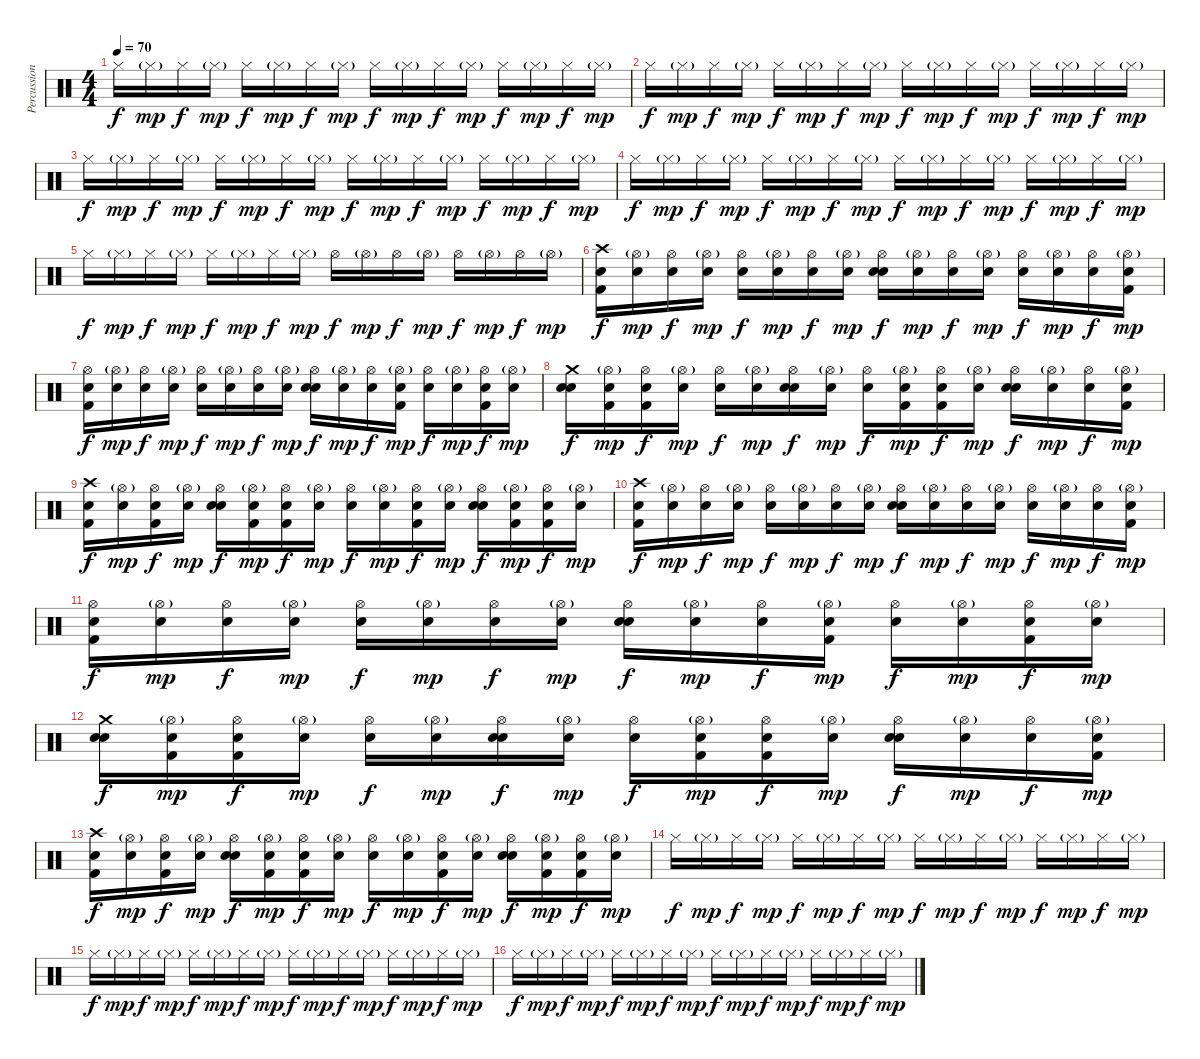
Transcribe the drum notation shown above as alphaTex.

\track ("Percussion" "Percussion") {instrument percussion}
\staff {score}
\articulation defaults
\ts (4 4)
\tempo 70
\clef neutral
\ks c "Hi-Hat (closed)".16{dy f} "Hi-Hat (closed)"{g}.16{dy mp} "Hi-Hat (closed)".16{dy f} "Hi-Hat (closed)"{g}.16{dy mp} "Hi-Hat (closed)".16{dy f} "Hi-Hat (closed)"{g}.16{dy mp} "Hi-Hat (closed)".16{dy f} "Hi-Hat (closed)"{g}.16{dy mp} "Hi-Hat (closed)".16{dy f} "Hi-Hat (closed)"{g}.16{dy mp} "Hi-Hat (closed)".16{dy f} "Hi-Hat (closed)"{g}.16{dy mp} "Hi-Hat (closed)".16{dy f} "Hi-Hat (closed)"{g}.16{dy mp} "Hi-Hat (closed)".16{dy f} "Hi-Hat (closed)"{g}.16{dy mp}
|
"Hi-Hat (closed)".16{dy f} "Hi-Hat (closed)"{g}.16{dy mp} "Hi-Hat (closed)".16{dy f} "Hi-Hat (closed)"{g}.16{dy mp} "Hi-Hat (closed)".16{dy f} "Hi-Hat (closed)"{g}.16{dy mp} "Hi-Hat (closed)".16{dy f} "Hi-Hat (closed)"{g}.16{dy mp} "Hi-Hat (closed)".16{dy f} "Hi-Hat (closed)"{g}.16{dy mp} "Hi-Hat (closed)".16{dy f} "Hi-Hat (closed)"{g}.16{dy mp} "Hi-Hat (closed)".16{dy f} "Hi-Hat (closed)"{g}.16{dy mp} "Hi-Hat (closed)".16{dy f} "Hi-Hat (closed)"{g}.16{dy mp} |
"Hi-Hat (closed)".16{dy f} "Hi-Hat (closed)"{g}.16{dy mp} "Hi-Hat (closed)".16{dy f} "Hi-Hat (closed)"{g}.16{dy mp} "Hi-Hat (closed)".16{dy f} "Hi-Hat (closed)"{g}.16{dy mp} "Hi-Hat (closed)".16{dy f} "Hi-Hat (closed)"{g}.16{dy mp} "Hi-Hat (closed)".16{dy f} "Hi-Hat (closed)"{g}.16{dy mp} "Hi-Hat (closed)".16{dy f} "Hi-Hat (closed)"{g}.16{dy mp} "Hi-Hat (closed)".16{dy f} "Hi-Hat (closed)"{g}.16{dy mp} "Hi-Hat (closed)".16{dy f} "Hi-Hat (closed)"{g}.16{dy mp} |
"Hi-Hat (closed)".16{dy f} "Hi-Hat (closed)"{g}.16{dy mp} "Hi-Hat (closed)".16{dy f} "Hi-Hat (closed)"{g}.16{dy mp} "Hi-Hat (closed)".16{dy f} "Hi-Hat (closed)"{g}.16{dy mp} "Hi-Hat (closed)".16{dy f} "Hi-Hat (closed)"{g}.16{dy mp} "Hi-Hat (closed)".16{dy f} "Hi-Hat (closed)"{g}.16{dy mp} "Hi-Hat (closed)".16{dy f} "Hi-Hat (closed)"{g}.16{dy mp} "Hi-Hat (closed)".16{dy f} "Hi-Hat (closed)"{g}.16{dy mp} "Hi-Hat (closed)".16{dy f} "Hi-Hat (closed)"{g}.16{dy mp} |
"Hi-Hat (closed)".16{dy f} "Hi-Hat (closed)"{g}.16{dy mp} "Hi-Hat (closed)".16{dy f} "Hi-Hat (closed)"{g}.16{dy mp} "Hi-Hat (closed)".16{dy f} "Hi-Hat (closed)"{g}.16{dy mp} "Hi-Hat (closed)".16{dy f} "Hi-Hat (closed)"{g}.16{dy mp} "Hi-Hat (open)".16{dy f} "Hi-Hat (open)"{g}.16{dy mp} "Hi-Hat (open)".16{dy f} "Hi-Hat (open)"{g}.16{dy mp} "Hi-Hat (open)".16{dy f} "Hi-Hat (open)"{g}.16{dy mp} "Hi-Hat (open)".16{dy f} "Hi-Hat (open)"{g}.16{dy mp} |
("Snare (hit)" "Crash high (hit)" "Kick (hit) 2").16{dy f} ("Snare (hit)" "Hi-Hat (open)"{g}).16{dy mp} ("Snare (hit)" "Hi-Hat (open)").16{dy f} ("Snare (hit)" "Hi-Hat (open)"{g}).16{dy mp} ("Snare (hit)" "Hi-Hat (open)").16{dy f} ("Snare (hit)" "Hi-Hat (open)"{g}).16{dy mp} ("Snare (hit)" "Hi-Hat (open)").16{dy f} ("Snare (hit)" "Hi-Hat (open)"{g}).16{dy mp} ("Snare (hit)" "Hi-Hat (open)" "Snare (hit) 2").16{dy f} ("Snare (hit)" "Hi-Hat (open)"{g}).16{dy mp} ("Snare (hit)" "Hi-Hat (open)").16{dy f} ("Snare (hit)" "Hi-Hat (open)"{g}).16{dy mp} ("Snare (hit)" "Hi-Hat (open)").16{dy f} ("Snare (hit)" "Hi-Hat (open)"{g}).16{dy mp} ("Snare (hit)" "Hi-Hat (open)").16{dy f} ("Snare (hit)" "Hi-Hat (open)"{g} "Kick (hit) 2").16{dy mp} |
("Snare (hit)" "Hi-Hat (open)" "Kick (hit) 2").16{dy f} ("Snare (hit)" "Hi-Hat (open)"{g}).16{dy mp} ("Snare (hit)" "Hi-Hat (open)").16{dy f} ("Snare (hit)" "Hi-Hat (open)"{g}).16{dy mp} ("Snare (hit)" "Hi-Hat (open)").16{dy f} ("Snare (hit)" "Hi-Hat (open)"{g}).16{dy mp} ("Snare (hit)" "Hi-Hat (open)").16{dy f} ("Snare (hit)" "Hi-Hat (open)"{g}).16{dy mp} ("Snare (hit)" "Hi-Hat (open)" "Snare (hit) 2").16{dy f} ("Snare (hit)" "Hi-Hat (open)"{g}).16{dy mp} ("Snare (hit)" "Hi-Hat (open)").16{dy f} ("Snare (hit)" "Hi-Hat (open)"{g} "Kick (hit) 2").16{dy mp} ("Snare (hit)" "Hi-Hat (open)").16{dy f} ("Snare (hit)" "Hi-Hat (open)"{g}).16{dy mp} ("Snare (hit)" "Hi-Hat (open)" "Kick (hit) 2").16{dy f} ("Snare (hit)" "Hi-Hat (open)"{g}).16{dy mp} |
("Snare (hit)" "Crash medium (hit)" "Snare (hit) 2").16{dy f} ("Snare (hit)" "Hi-Hat (open)"{g} "Kick (hit) 2").16{dy mp} ("Snare (hit)" "Hi-Hat (open)" "Kick (hit) 2").16{dy f} ("Snare (hit)" "Hi-Hat (open)"{g}).16{dy mp} ("Snare (hit)" "Hi-Hat (open)").16{dy f} ("Snare (hit)" "Hi-Hat (open)"{g}).16{dy mp} ("Snare (hit)" "Hi-Hat (open)" "Snare (hit) 2").16{dy f} ("Snare (hit)" "Hi-Hat (open)"{g}).16{dy mp} ("Snare (hit)" "Hi-Hat (open)").16{dy f} ("Snare (hit)" "Hi-Hat (open)"{g} "Kick (hit) 2").16{dy mp} ("Snare (hit)" "Hi-Hat (open)" "Kick (hit) 2").16{dy f} ("Snare (hit)" "Hi-Hat (open)"{g}).16{dy mp} ("Snare (hit)" "Hi-Hat (open)" "Snare (hit) 2").16{dy f} ("Snare (hit)" "Hi-Hat (open)"{g}).16{dy mp} ("Snare (hit)" "Hi-Hat (open)").16{dy f} ("Snare (hit)" "Hi-Hat (open)"{g} "Kick (hit) 2").16{dy mp} |
("Snare (hit)" "Crash high (hit)" "Kick (hit) 2").16{dy f} ("Snare (hit)" "Hi-Hat (open)"{g}).16{dy mp} ("Snare (hit)" "Hi-Hat (open)" "Kick (hit) 2").16{dy f} ("Snare (hit)" "Hi-Hat (open)"{g}).16{dy mp} ("Snare (hit)" "Hi-Hat (open)" "Snare (hit) 2").16{dy f} ("Snare (hit)" "Hi-Hat (open)"{g} "Kick (hit) 2").16{dy mp} ("Snare (hit)" "Hi-Hat (open)" "Kick (hit) 2").16{dy f} ("Snare (hit)" "Hi-Hat (open)"{g}).16{dy mp} ("Snare (hit)" "Hi-Hat (open)").16{dy f} ("Snare (hit)" "Hi-Hat (open)"{g}).16{dy mp} ("Snare (hit)" "Hi-Hat (open)" "Kick (hit) 2").16{dy f} ("Snare (hit)" "Hi-Hat (open)"{g}).16{dy mp} ("Snare (hit)" "Hi-Hat (open)" "Snare (hit) 2").16{dy f} ("Snare (hit)" "Hi-Hat (open)"{g} "Kick (hit) 2").16{dy mp} ("Snare (hit)" "Hi-Hat (open)" "Kick (hit) 2").16{dy f} ("Snare (hit)" "Hi-Hat (open)"{g}).16{dy mp} |
("Snare (hit)" "Crash high (hit)" "Kick (hit) 2").16{dy f} ("Snare (hit)" "Hi-Hat (open)"{g}).16{dy mp} ("Snare (hit)" "Hi-Hat (open)").16{dy f} ("Snare (hit)" "Hi-Hat (open)"{g}).16{dy mp} ("Snare (hit)" "Hi-Hat (open)").16{dy f} ("Snare (hit)" "Hi-Hat (open)"{g}).16{dy mp} ("Snare (hit)" "Hi-Hat (open)").16{dy f} ("Snare (hit)" "Hi-Hat (open)"{g}).16{dy mp} ("Snare (hit)" "Hi-Hat (open)" "Snare (hit) 2").16{dy f} ("Snare (hit)" "Hi-Hat (open)"{g}).16{dy mp} ("Snare (hit)" "Hi-Hat (open)").16{dy f} ("Snare (hit)" "Hi-Hat (open)"{g}).16{dy mp} ("Snare (hit)" "Hi-Hat (open)").16{dy f} ("Snare (hit)" "Hi-Hat (open)"{g}).16{dy mp} ("Snare (hit)" "Hi-Hat (open)").16{dy f} ("Snare (hit)" "Hi-Hat (open)"{g} "Kick (hit) 2").16{dy mp} |
("Snare (hit)" "Hi-Hat (open)" "Kick (hit) 2").16{dy f} ("Snare (hit)" "Hi-Hat (open)"{g}).16{dy mp} ("Snare (hit)" "Hi-Hat (open)").16{dy f} ("Snare (hit)" "Hi-Hat (open)"{g}).16{dy mp} ("Snare (hit)" "Hi-Hat (open)").16{dy f} ("Snare (hit)" "Hi-Hat (open)"{g}).16{dy mp} ("Snare (hit)" "Hi-Hat (open)").16{dy f} ("Snare (hit)" "Hi-Hat (open)"{g}).16{dy mp} ("Snare (hit)" "Hi-Hat (open)" "Snare (hit) 2").16{dy f} ("Snare (hit)" "Hi-Hat (open)"{g}).16{dy mp} ("Snare (hit)" "Hi-Hat (open)").16{dy f} ("Snare (hit)" "Hi-Hat (open)"{g} "Kick (hit) 2").16{dy mp} ("Snare (hit)" "Hi-Hat (open)").16{dy f} ("Snare (hit)" "Hi-Hat (open)"{g}).16{dy mp} ("Snare (hit)" "Hi-Hat (open)" "Kick (hit) 2").16{dy f} ("Snare (hit)" "Hi-Hat (open)"{g}).16{dy mp} |
("Snare (hit)" "Crash medium (hit)" "Snare (hit) 2").16{dy f} ("Snare (hit)" "Hi-Hat (open)"{g} "Kick (hit) 2").16{dy mp} ("Snare (hit)" "Hi-Hat (open)" "Kick (hit) 2").16{dy f} ("Snare (hit)" "Hi-Hat (open)"{g}).16{dy mp} ("Snare (hit)" "Hi-Hat (open)").16{dy f} ("Snare (hit)" "Hi-Hat (open)"{g}).16{dy mp} ("Snare (hit)" "Hi-Hat (open)" "Snare (hit) 2").16{dy f} ("Snare (hit)" "Hi-Hat (open)"{g}).16{dy mp} ("Snare (hit)" "Hi-Hat (open)").16{dy f} ("Snare (hit)" "Hi-Hat (open)"{g} "Kick (hit) 2").16{dy mp} ("Snare (hit)" "Hi-Hat (open)" "Kick (hit) 2").16{dy f} ("Snare (hit)" "Hi-Hat (open)"{g}).16{dy mp} ("Snare (hit)" "Hi-Hat (open)" "Snare (hit) 2").16{dy f} ("Snare (hit)" "Hi-Hat (open)"{g}).16{dy mp} ("Snare (hit)" "Hi-Hat (open)").16{dy f} ("Snare (hit)" "Hi-Hat (open)"{g} "Kick (hit) 2").16{dy mp} |
("Snare (hit)" "Crash high (hit)" "Kick (hit) 2").16{dy f} ("Snare (hit)" "Hi-Hat (open)"{g}).16{dy mp} ("Snare (hit)" "Hi-Hat (open)" "Kick (hit) 2").16{dy f} ("Snare (hit)" "Hi-Hat (open)"{g}).16{dy mp} ("Snare (hit)" "Hi-Hat (open)" "Snare (hit) 2").16{dy f} ("Snare (hit)" "Hi-Hat (open)"{g} "Kick (hit) 2").16{dy mp} ("Snare (hit)" "Hi-Hat (open)" "Kick (hit) 2").16{dy f} ("Snare (hit)" "Hi-Hat (open)"{g}).16{dy mp} ("Snare (hit)" "Hi-Hat (open)").16{dy f} ("Snare (hit)" "Hi-Hat (open)"{g}).16{dy mp} ("Snare (hit)" "Hi-Hat (open)" "Kick (hit) 2").16{dy f} ("Snare (hit)" "Hi-Hat (open)"{g}).16{dy mp} ("Snare (hit)" "Hi-Hat (open)" "Snare (hit) 2").16{dy f} ("Snare (hit)" "Hi-Hat (open)"{g} "Kick (hit) 2").16{dy mp} ("Snare (hit)" "Hi-Hat (open)" "Kick (hit) 2").16{dy f} ("Snare (hit)" "Hi-Hat (open)"{g}).16{dy mp} |
"Hi-Hat (closed)".16{dy f} "Hi-Hat (closed)"{g}.16{dy mp} "Hi-Hat (closed)".16{dy f} "Hi-Hat (closed)"{g}.16{dy mp} "Hi-Hat (closed)".16{dy f} "Hi-Hat (closed)"{g}.16{dy mp} "Hi-Hat (closed)".16{dy f} "Hi-Hat (closed)"{g}.16{dy mp} "Hi-Hat (closed)".16{dy f} "Hi-Hat (closed)"{g}.16{dy mp} "Hi-Hat (closed)".16{dy f} "Hi-Hat (closed)"{g}.16{dy mp} "Hi-Hat (closed)".16{dy f} "Hi-Hat (closed)"{g}.16{dy mp} "Hi-Hat (closed)".16{dy f} "Hi-Hat (closed)"{g}.16{dy mp} |
"Hi-Hat (closed)".16{dy f} "Hi-Hat (closed)"{g}.16{dy mp} "Hi-Hat (closed)".16{dy f} "Hi-Hat (closed)"{g}.16{dy mp} "Hi-Hat (closed)".16{dy f} "Hi-Hat (closed)"{g}.16{dy mp} "Hi-Hat (closed)".16{dy f} "Hi-Hat (closed)"{g}.16{dy mp} "Hi-Hat (closed)".16{dy f} "Hi-Hat (closed)"{g}.16{dy mp} "Hi-Hat (closed)".16{dy f} "Hi-Hat (closed)"{g}.16{dy mp} "Hi-Hat (closed)".16{dy f} "Hi-Hat (closed)"{g}.16{dy mp} "Hi-Hat (closed)".16{dy f} "Hi-Hat (closed)"{g}.16{dy mp} |
"Hi-Hat (closed)".16{dy f} "Hi-Hat (closed)"{g}.16{dy mp} "Hi-Hat (closed)".16{dy f} "Hi-Hat (closed)"{g}.16{dy mp} "Hi-Hat (closed)".16{dy f} "Hi-Hat (closed)"{g}.16{dy mp} "Hi-Hat (closed)".16{dy f} "Hi-Hat (closed)"{g}.16{dy mp} "Hi-Hat (closed)".16{dy f} "Hi-Hat (closed)"{g}.16{dy mp} "Hi-Hat (closed)".16{dy f} "Hi-Hat (closed)"{g}.16{dy mp} "Hi-Hat (closed)".16{dy f} "Hi-Hat (closed)"{g}.16{dy mp} "Hi-Hat (closed)".16{dy f} "Hi-Hat (closed)"{g}.16{dy mp}
